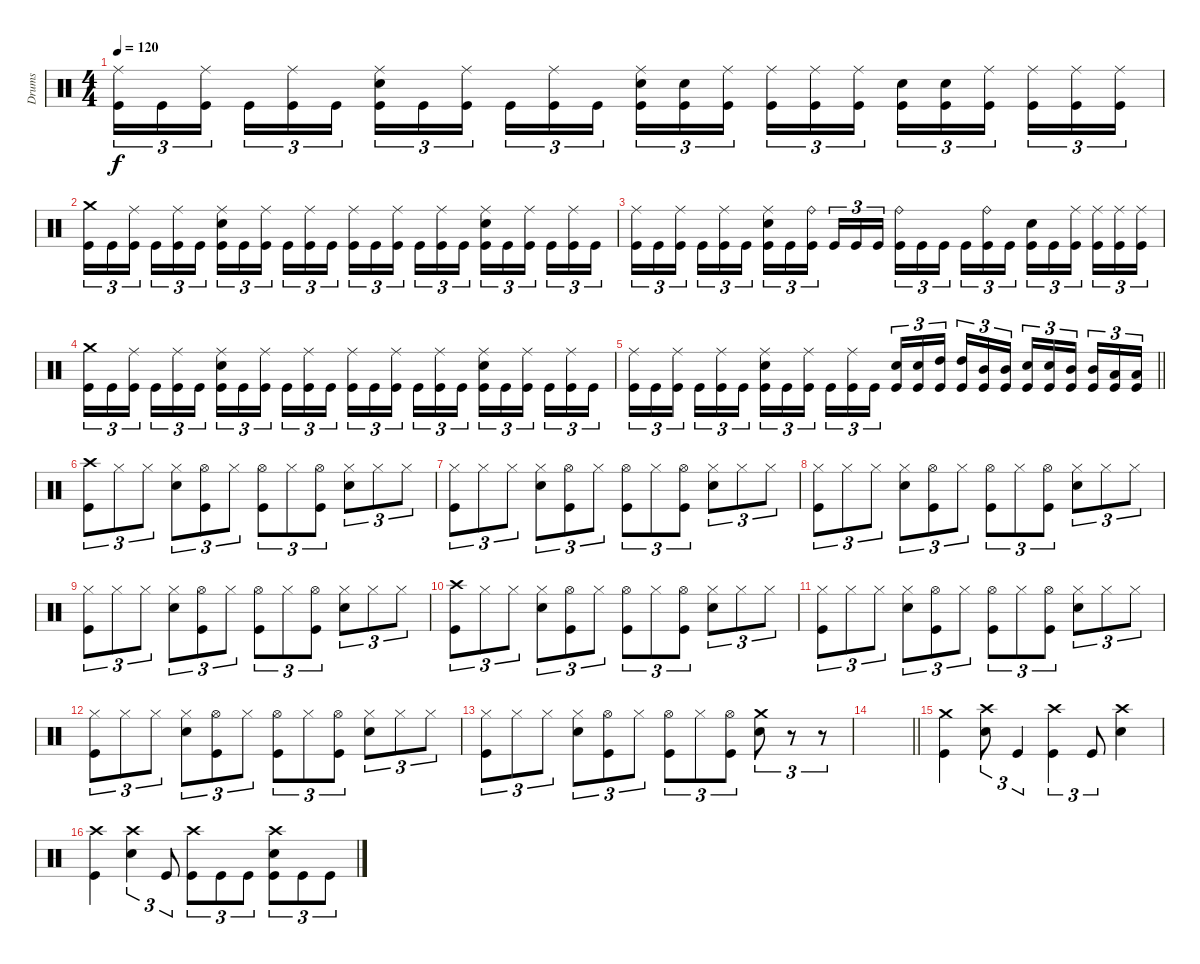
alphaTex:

\track ("Drums" "Drums") {instrument percussion}
\staff {score}
\articulation defaults
\ts (4 4)
\tempo 120
\clef neutral
\ks c
("Ride (middle)" "Kick (hit)").16{tu (3 2) dy f} "Kick (hit)".16{tu (3 2)} ("Ride (middle)" "Kick (hit)").16{tu (3 2) beam splitsecondary} "Kick (hit)".16{tu (3 2)} ("Ride (middle)" "Kick (hit)").16{tu (3 2)} "Kick (hit)".16{tu (3 2)} ("Ride (middle)" "Snare (hit) 2" "Kick (hit)").16{tu (3 2)} "Kick (hit)".16{tu (3 2)} ("Ride (middle)" "Kick (hit)").16{tu (3 2) beam splitsecondary} "Kick (hit)".16{tu (3 2)} ("Ride (middle)" "Kick (hit)").16{tu (3 2)} "Kick (hit)".16{tu (3 2)} ("Ride (middle)" "Snare (hit) 2" "Kick (hit)").16{tu (3 2)} ("Snare (hit) 2" "Kick (hit)").16{tu (3 2)} ("Ride (middle)" "Kick (hit)").16{tu (3 2) beam splitsecondary} ("Ride (middle)" "Kick (hit)").16{tu (3 2)} ("Ride (middle)" "Kick (hit)").16{tu (3 2)} ("Ride (middle)" "Kick (hit)").16{tu (3 2)} ("Snare (hit) 2" "Kick (hit)").16{tu (3 2)} ("Snare (hit) 2" "Kick (hit)").16{tu (3 2)} ("Ride (middle)" "Kick (hit)").16{tu (3 2) beam splitsecondary} ("Ride (middle)" "Kick (hit)").16{tu (3 2)} ("Ride (middle)" "Kick (hit)").16{tu (3 2)} ("Ride (middle)" "Kick (hit)").16{tu (3 2)} |
("Crash medium (hit)" "Kick (hit)").16{tu (3 2)} "Kick (hit)".16{tu (3 2)} ("Ride (middle)" "Kick (hit)").16{tu (3 2) beam splitsecondary} "Kick (hit)".16{tu (3 2)} ("Ride (middle)" "Kick (hit)").16{tu (3 2)} "Kick (hit)".16{tu (3 2)} ("Ride (middle)" "Snare (hit) 2" "Kick (hit)").16{tu (3 2)} "Kick (hit)".16{tu (3 2)} ("Ride (middle)" "Kick (hit)").16{tu (3 2) beam splitsecondary} "Kick (hit)".16{tu (3 2)} ("Ride (middle)" "Kick (hit)").16{tu (3 2)} "Kick (hit)".16{tu (3 2)} ("Ride (middle)" "Kick (hit)").16{tu (3 2)} "Kick (hit)".16{tu (3 2)} ("Ride (middle)" "Kick (hit)").16{tu (3 2) beam splitsecondary} "Kick (hit)".16{tu (3 2)} ("Ride (middle)" "Kick (hit)").16{tu (3 2)} "Kick (hit)".16{tu (3 2)} ("Ride (middle)" "Snare (hit) 2" "Kick (hit)").16{tu (3 2)} "Kick (hit)".16{tu (3 2)} ("Ride (middle)" "Kick (hit)").16{tu (3 2) beam splitsecondary} "Kick (hit)".16{tu (3 2)} ("Ride (middle)" "Kick (hit)").16{tu (3 2)} "Kick (hit)".16{tu (3 2)} |
("Ride (middle)" "Kick (hit)").16{tu (3 2)} "Kick (hit)".16{tu (3 2)} ("Ride (middle)" "Kick (hit)").16{tu (3 2) beam splitsecondary} "Kick (hit)".16{tu (3 2)} ("Ride (middle)" "Kick (hit)").16{tu (3 2)} "Kick (hit)".16{tu (3 2)} ("Ride (middle)" "Snare (hit) 2" "Kick (hit)").16{tu (3 2)} "Kick (hit)".16{tu (3 2)} ("Ride (bell)" "Kick (hit)").16{tu (3 2) beam splitsecondary} "Kick (hit)".16{tu (3 2)} "Kick (hit)".16{tu (3 2)} "Kick (hit)".16{tu (3 2)} ("Ride (bell)" "Kick (hit)").16{tu (3 2)} "Kick (hit)".16{tu (3 2)} "Kick (hit)".16{tu (3 2) beam splitsecondary} "Kick (hit)".16{tu (3 2)} ("Ride (bell)" "Kick (hit)").16{tu (3 2)} "Kick (hit)".16{tu (3 2)} ("Snare (hit) 2" "Kick (hit)").16{tu (3 2)} "Kick (hit)".16{tu (3 2)} ("Ride (middle)" "Kick (hit)").16{tu (3 2) beam splitsecondary} ("Ride (middle)" "Kick (hit)").16{tu (3 2)} ("Ride (middle)" "Kick (hit)").16{tu (3 2)} ("Ride (middle)" "Kick (hit)").16{tu (3 2)} |
("Crash medium (hit)" "Kick (hit)").16{tu (3 2)} "Kick (hit)".16{tu (3 2)} ("Ride (middle)" "Kick (hit)").16{tu (3 2) beam splitsecondary} "Kick (hit)".16{tu (3 2)} ("Ride (middle)" "Kick (hit)").16{tu (3 2)} "Kick (hit)".16{tu (3 2)} ("Ride (middle)" "Snare (hit) 2" "Kick (hit)").16{tu (3 2)} "Kick (hit)".16{tu (3 2)} ("Ride (middle)" "Kick (hit)").16{tu (3 2) beam splitsecondary} "Kick (hit)".16{tu (3 2)} ("Ride (middle)" "Kick (hit)").16{tu (3 2)} "Kick (hit)".16{tu (3 2)} ("Ride (middle)" "Kick (hit)").16{tu (3 2)} "Kick (hit)".16{tu (3 2)} ("Ride (middle)" "Kick (hit)").16{tu (3 2) beam splitsecondary} "Kick (hit)".16{tu (3 2)} ("Ride (middle)" "Kick (hit)").16{tu (3 2)} "Kick (hit)".16{tu (3 2)} ("Ride (middle)" "Snare (hit) 2" "Kick (hit)").16{tu (3 2)} "Kick (hit)".16{tu (3 2)} ("Ride (middle)" "Kick (hit)").16{tu (3 2) beam splitsecondary} "Kick (hit)".16{tu (3 2)} ("Ride (middle)" "Kick (hit)").16{tu (3 2)} "Kick (hit)".16{tu (3 2)} |
\barLineRight lightlight
("Ride (middle)" "Kick (hit)").16{tu (3 2)} "Kick (hit)".16{tu (3 2)} ("Ride (middle)" "Kick (hit)").16{tu (3 2) beam splitsecondary} "Kick (hit)".16{tu (3 2)} ("Ride (middle)" "Kick (hit)").16{tu (3 2)} "Kick (hit)".16{tu (3 2)} ("Ride (middle)" "Snare (hit) 2" "Kick (hit)").16{tu (3 2)} "Kick (hit)".16{tu (3 2)} ("Ride (middle)" "Kick (hit)").16{tu (3 2) beam splitsecondary} "Kick (hit)".16{tu (3 2)} ("Ride (middle)" "Kick (hit)").16{tu (3 2)} "Kick (hit)".16{tu (3 2)} ("Snare (hit) 2" "Kick (hit)").16{tu (3 2)} ("Snare (hit) 2" "Kick (hit)").16{tu (3 2)} ("High Tom (hit)" "Kick (hit)").16{tu (3 2) beam splitsecondary} ("High Tom (hit)" "Kick (hit)").16{tu (3 2)} ("Mid Tom (hit)" "Kick (hit)").16{tu (3 2)} ("Mid Tom (hit)" "Kick (hit)").16{tu (3 2)} ("Snare (hit) 2" "Kick (hit)").16{tu (3 2)} ("Snare (hit) 2" "Kick (hit)").16{tu (3 2)} ("Mid Tom (hit)" "Kick (hit)").16{tu (3 2) beam splitsecondary} ("Mid Tom (hit)" "Kick (hit)").16{tu (3 2)} ("Low Tom (hit)" "Kick (hit)").16{tu (3 2)} ("Low Tom (hit)" "Kick (hit)").16{tu (3 2)} |
\section ("" "")
("Crash high (hit)" "Kick (hit)").8{tu (3 2)} "Hi-Hat (closed)".8{tu (3 2)} "Hi-Hat (closed)".8{tu (3 2)} ("Hi-Hat (closed)" "Snare (hit) 2").8{tu (3 2)} ("Hi-Hat (open)" "Kick (hit)").8{tu (3 2)} "Hi-Hat (closed)".8{tu (3 2)} ("Hi-Hat (open)" "Kick (hit)").8{tu (3 2)} "Hi-Hat (closed)".8{tu (3 2)} ("Hi-Hat (open)" "Kick (hit)").8{tu (3 2)} ("Hi-Hat (closed)" "Snare (hit) 2").8{tu (3 2)} "Hi-Hat (closed)".8{tu (3 2)} "Hi-Hat (closed)".8{tu (3 2)} |
("Hi-Hat (closed)" "Kick (hit)").8{tu (3 2)} "Hi-Hat (closed)".8{tu (3 2)} "Hi-Hat (closed)".8{tu (3 2)} ("Hi-Hat (closed)" "Snare (hit) 2").8{tu (3 2)} ("Hi-Hat (open)" "Kick (hit)").8{tu (3 2)} "Hi-Hat (closed)".8{tu (3 2)} ("Hi-Hat (open)" "Kick (hit)").8{tu (3 2)} "Hi-Hat (closed)".8{tu (3 2)} ("Hi-Hat (open)" "Kick (hit)").8{tu (3 2)} ("Hi-Hat (closed)" "Snare (hit) 2").8{tu (3 2)} "Hi-Hat (closed)".8{tu (3 2)} "Hi-Hat (closed)".8{tu (3 2)} |
("Hi-Hat (closed)" "Kick (hit)").8{tu (3 2)} "Hi-Hat (closed)".8{tu (3 2)} "Hi-Hat (closed)".8{tu (3 2)} ("Hi-Hat (closed)" "Snare (hit) 2").8{tu (3 2)} ("Hi-Hat (open)" "Kick (hit)").8{tu (3 2)} "Hi-Hat (closed)".8{tu (3 2)} ("Hi-Hat (open)" "Kick (hit)").8{tu (3 2)} "Hi-Hat (closed)".8{tu (3 2)} ("Hi-Hat (open)" "Kick (hit)").8{tu (3 2)} ("Hi-Hat (closed)" "Snare (hit) 2").8{tu (3 2)} "Hi-Hat (closed)".8{tu (3 2)} "Hi-Hat (closed)".8{tu (3 2)} |
("Hi-Hat (closed)" "Kick (hit)").8{tu (3 2)} "Hi-Hat (closed)".8{tu (3 2)} "Hi-Hat (closed)".8{tu (3 2)} ("Hi-Hat (closed)" "Snare (hit) 2").8{tu (3 2)} ("Hi-Hat (open)" "Kick (hit)").8{tu (3 2)} "Hi-Hat (closed)".8{tu (3 2)} ("Hi-Hat (open)" "Kick (hit)").8{tu (3 2)} "Hi-Hat (closed)".8{tu (3 2)} ("Hi-Hat (open)" "Kick (hit)").8{tu (3 2)} ("Hi-Hat (closed)" "Snare (hit) 2").8{tu (3 2)} "Hi-Hat (closed)".8{tu (3 2)} "Hi-Hat (closed)".8{tu (3 2)} |
("Crash high (hit)" "Kick (hit)").8{tu (3 2)} "Hi-Hat (closed)".8{tu (3 2)} "Hi-Hat (closed)".8{tu (3 2)} ("Hi-Hat (closed)" "Snare (hit) 2").8{tu (3 2)} ("Hi-Hat (open)" "Kick (hit)").8{tu (3 2)} "Hi-Hat (closed)".8{tu (3 2)} ("Hi-Hat (open)" "Kick (hit)").8{tu (3 2)} "Hi-Hat (closed)".8{tu (3 2)} ("Hi-Hat (open)" "Kick (hit)").8{tu (3 2)} ("Hi-Hat (closed)" "Snare (hit) 2").8{tu (3 2)} "Hi-Hat (closed)".8{tu (3 2)} "Hi-Hat (closed)".8{tu (3 2)} |
("Hi-Hat (closed)" "Kick (hit)").8{tu (3 2)} "Hi-Hat (closed)".8{tu (3 2)} "Hi-Hat (closed)".8{tu (3 2)} ("Hi-Hat (closed)" "Snare (hit) 2").8{tu (3 2)} ("Hi-Hat (open)" "Kick (hit)").8{tu (3 2)} "Hi-Hat (closed)".8{tu (3 2)} ("Hi-Hat (open)" "Kick (hit)").8{tu (3 2)} "Hi-Hat (closed)".8{tu (3 2)} ("Hi-Hat (open)" "Kick (hit)").8{tu (3 2)} ("Hi-Hat (closed)" "Snare (hit) 2").8{tu (3 2)} "Hi-Hat (closed)".8{tu (3 2)} "Hi-Hat (closed)".8{tu (3 2)} |
("Hi-Hat (closed)" "Kick (hit)").8{tu (3 2)} "Hi-Hat (closed)".8{tu (3 2)} "Hi-Hat (closed)".8{tu (3 2)} ("Hi-Hat (closed)" "Snare (hit) 2").8{tu (3 2)} ("Hi-Hat (open)" "Kick (hit)").8{tu (3 2)} "Hi-Hat (closed)".8{tu (3 2)} ("Hi-Hat (open)" "Kick (hit)").8{tu (3 2)} "Hi-Hat (closed)".8{tu (3 2)} ("Hi-Hat (open)" "Kick (hit)").8{tu (3 2)} ("Hi-Hat (closed)" "Snare (hit) 2").8{tu (3 2)} "Hi-Hat (closed)".8{tu (3 2)} "Hi-Hat (closed)".8{tu (3 2)} |
("Hi-Hat (closed)" "Kick (hit)").8{tu (3 2)} "Hi-Hat (closed)".8{tu (3 2)} "Hi-Hat (closed)".8{tu (3 2)} ("Hi-Hat (closed)" "Snare (hit) 2").8{tu (3 2)} ("Hi-Hat (open)" "Kick (hit)").8{tu (3 2)} "Hi-Hat (closed)".8{tu (3 2)} ("Hi-Hat (open)" "Kick (hit)").8{tu (3 2)} "Hi-Hat (closed)".8{tu (3 2)} ("Hi-Hat (open)" "Kick (hit)").8{tu (3 2)} ("Crash medium (hit)" "Snare (hit) 2").8{tu (3 2)} r.8{tu (3 2)} r.8{tu (3 2)} |
\barLineRight lightlight
|
\section ("" "")
("Crash medium (hit)" "Kick (hit)").4 ("Crash high (hit)" "Snare (hit) 2").8{tu (3 2)} "Kick (hit)".4{tu (3 2)} ("Crash high (hit)" "Kick (hit)").4{tu (3 2)} "Kick (hit)".8{tu (3 2)} ("Crash high (hit)" "Snare (hit) 2").4 |
("Crash high (hit)" "Kick (hit)").4 ("Crash high (hit)" "Snare (hit) 2").4{tu (3 2)} "Kick (hit)".8{tu (3 2)} ("Crash high (hit)" "Kick (hit)").8{tu (3 2)} "Kick (hit)".8{tu (3 2)} "Kick (hit)".8{tu (3 2)} ("Crash high (hit)" "Snare (hit) 2" "Kick (hit)").8{tu (3 2)} "Kick (hit)".8{tu (3 2)} "Kick (hit)".8{tu (3 2)}
